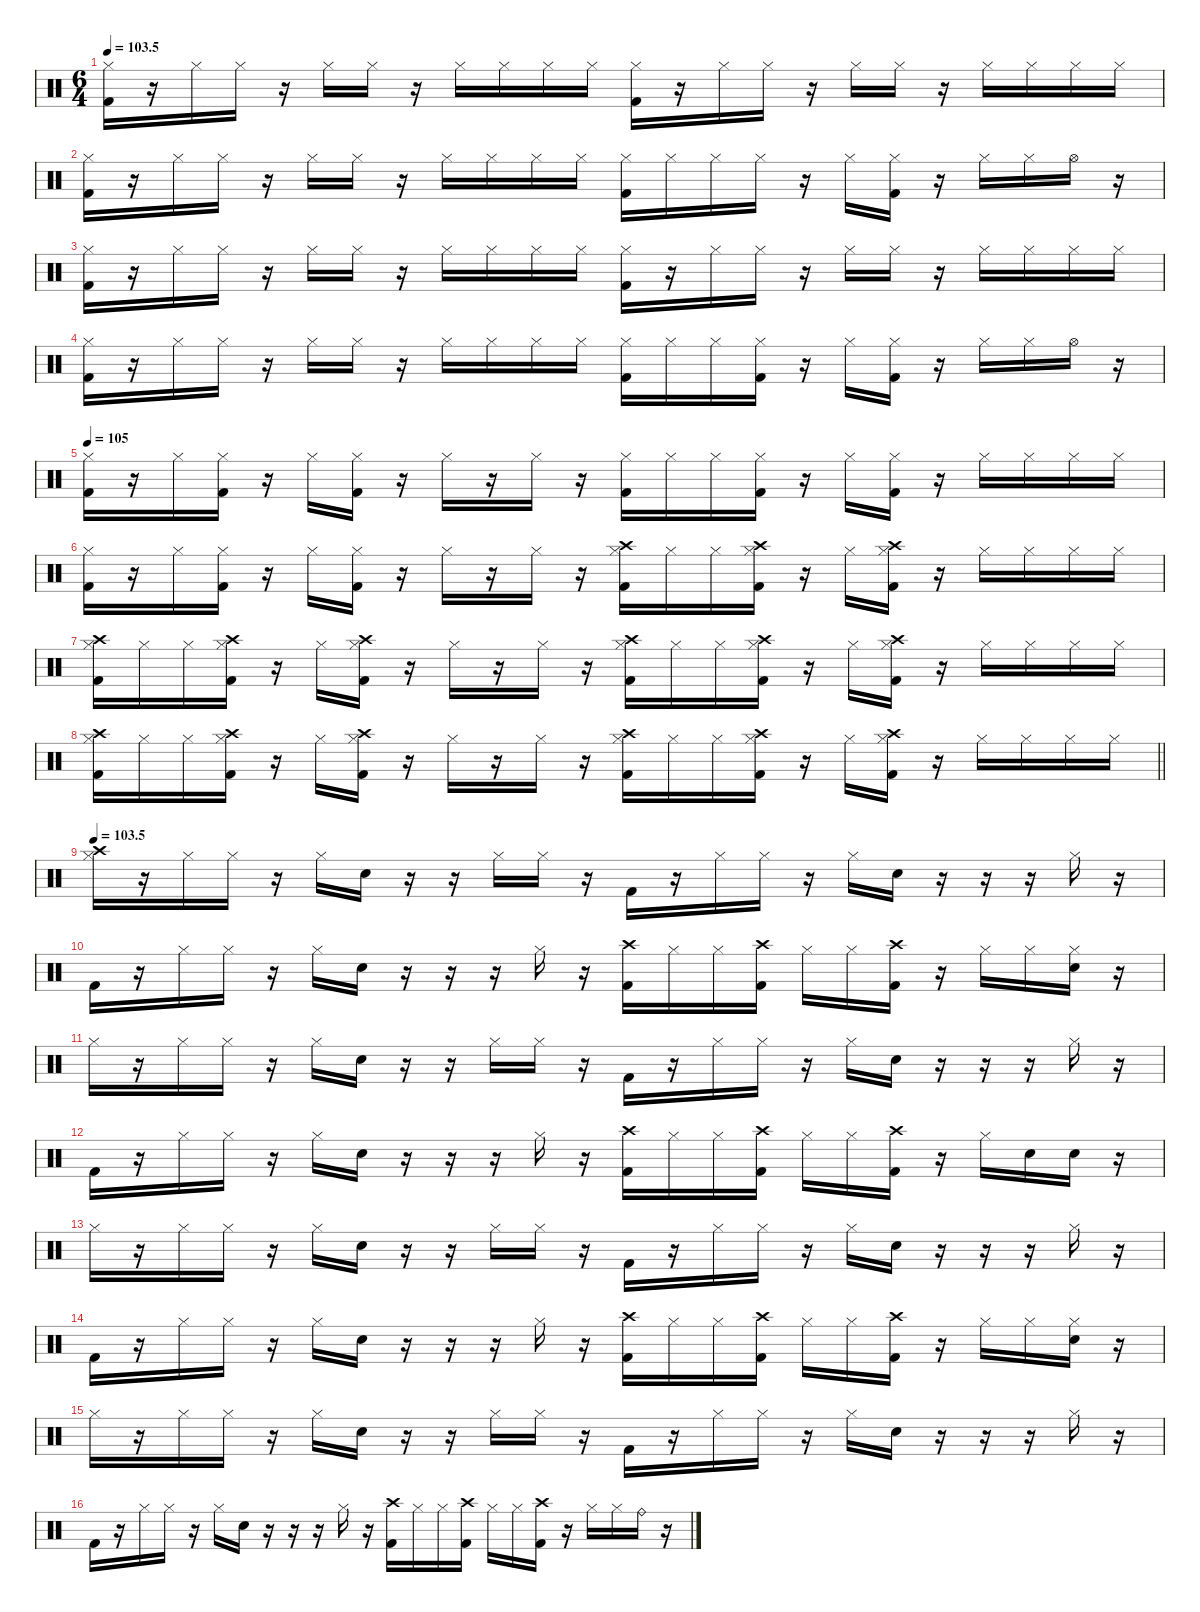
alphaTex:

\defaultSystemsLayout 4
\hideDynamics
\bracketExtendMode nobrackets
\singleTrackTrackNamePolicy hidden
\multiTrackTrackNamePolicy hidden
\firstSystemTrackNameMode fullname
\firstSystemTrackNameOrientation horizontal
\otherSystemsTrackNameOrientation horizontal
\track ("Gene Hoglan" "drm.") {instrument percussion}
\staff {score}
\articulation defaults
\ts (6 4)
\tempo
103.5
\accidentals auto
\clef neutral
\ottava regular
\simile none
\ks c
("Hi-Hat (closed)" "Kick (hit) 2").16{dy f beam Down} r.16{beam Down} "Hi-Hat (closed)".16{beam Down} "Hi-Hat (closed)".16{beam Down} r.16{beam Down} "Hi-Hat (closed)".16{beam Down} "Hi-Hat (closed)".16{beam Down} r.16{beam Down} "Hi-Hat (closed)".16{beam Down} "Hi-Hat (closed)".16{beam Down} "Hi-Hat (closed)".16{beam Down} "Hi-Hat (closed)".16{beam Down} ("Hi-Hat (closed)" "Kick (hit) 2").16{beam Down} r.16{beam Down} "Hi-Hat (closed)".16{beam Down} "Hi-Hat (closed)".16{beam Down} r.16{beam Down} "Hi-Hat (closed)".16{beam Down} "Hi-Hat (closed)".16{beam Down} r.16{beam Down} "Hi-Hat (closed)".16{beam Down} "Hi-Hat (closed)".16{beam Down} "Hi-Hat (closed)".16{beam Down} "Hi-Hat (closed)".16{beam Down} |
("Hi-Hat (closed)" "Kick (hit) 2").16{beam Down} r.16{beam Down} "Hi-Hat (closed)".16{beam Down} "Hi-Hat (closed)".16{beam Down} r.16{beam Down} "Hi-Hat (closed)".16{beam Down} "Hi-Hat (closed)".16{beam Down} r.16{beam Down} "Hi-Hat (closed)".16{beam Down} "Hi-Hat (closed)".16{beam Down} "Hi-Hat (closed)".16{beam Down} "Hi-Hat (closed)".16{beam Down} ("Hi-Hat (closed)" "Kick (hit) 2").16{beam Down} "Hi-Hat (closed)".16{beam Down} "Hi-Hat (closed)".16{beam Down} "Hi-Hat (closed)".16{beam Down} r.16{beam Down} "Hi-Hat (closed)".16{beam Down} ("Hi-Hat (closed)" "Kick (hit) 2").16{beam Down} r.16{beam Down} "Hi-Hat (closed)".16{beam Down} "Hi-Hat (closed)".16{beam Down} "Hi-Hat (open)".16{beam Down} r.16{beam Down} |
("Hi-Hat (closed)" "Kick (hit) 2").16{beam Down} r.16{beam Down} "Hi-Hat (closed)".16{beam Down} "Hi-Hat (closed)".16{beam Down} r.16{beam Down} "Hi-Hat (closed)".16{beam Down} "Hi-Hat (closed)".16{beam Down} r.16{beam Down} "Hi-Hat (closed)".16{beam Down} "Hi-Hat (closed)".16{beam Down} "Hi-Hat (closed)".16{beam Down} "Hi-Hat (closed)".16{beam Down} ("Hi-Hat (closed)" "Kick (hit) 2").16{beam Down} r.16{beam Down} "Hi-Hat (closed)".16{beam Down} "Hi-Hat (closed)".16{beam Down} r.16{beam Down} "Hi-Hat (closed)".16{beam Down} "Hi-Hat (closed)".16{beam Down} r.16{beam Down} "Hi-Hat (closed)".16{beam Down} "Hi-Hat (closed)".16{beam Down} "Hi-Hat (closed)".16{beam Down} "Hi-Hat (closed)".16{beam Down} |
("Hi-Hat (closed)" "Kick (hit) 2").16{beam Down} r.16{beam Down} "Hi-Hat (closed)".16{beam Down} "Hi-Hat (closed)".16{beam Down} r.16{beam Down} "Hi-Hat (closed)".16{beam Down} "Hi-Hat (closed)".16{beam Down} r.16{beam Down} "Hi-Hat (closed)".16{beam Down} "Hi-Hat (closed)".16{beam Down} "Hi-Hat (closed)".16{beam Down} "Hi-Hat (closed)".16{beam Down} ("Hi-Hat (closed)" "Kick (hit) 2").16{beam Down} "Hi-Hat (closed)".16{beam Down} "Hi-Hat (closed)".16{beam Down} ("Hi-Hat (closed)" "Kick (hit) 2").16{beam Down} r.16{beam Down} "Hi-Hat (closed)".16{beam Down} ("Hi-Hat (closed)" "Kick (hit) 2").16{beam Down} r.16{beam Down} "Hi-Hat (closed)".16{beam Down} "Hi-Hat (closed)".16{beam Down} "Hi-Hat (open)".16{beam Down} r.16{beam Down} |
\tempo 105
("Hi-Hat (closed)" "Kick (hit) 2").16{beam Down} r.16{beam Down} "Hi-Hat (closed)".16{beam Down} ("Hi-Hat (closed)" "Kick (hit) 2").16{beam Down} r.16{beam Down} "Hi-Hat (closed)".16{beam Down} ("Hi-Hat (closed)" "Kick (hit) 2").16{beam Down} r.16{beam Down} "Hi-Hat (closed)".16{beam Down} r.16{beam Down} "Hi-Hat (closed)".16{beam Down} r.16{beam Down} ("Hi-Hat (closed)" "Kick (hit) 2").16{beam Down} "Hi-Hat (closed)".16{beam Down} "Hi-Hat (closed)".16{beam Down} ("Hi-Hat (closed)" "Kick (hit) 2").16{beam Down} r.16{beam Down} "Hi-Hat (closed)".16{beam Down} ("Hi-Hat (closed)" "Kick (hit) 2").16{beam Down} r.16{beam Down} "Hi-Hat (closed)".16{beam Down} "Hi-Hat (closed)".16{beam Down} "Hi-Hat (closed)".16{beam Down} "Hi-Hat (closed)".16{beam Down} |
("Hi-Hat (closed)" "Kick (hit) 2").16{beam Down} r.16{beam Down} "Hi-Hat (closed)".16{beam Down} ("Hi-Hat (closed)" "Kick (hit) 2").16{beam Down} r.16{beam Down} "Hi-Hat (closed)".16{beam Down} ("Hi-Hat (closed)" "Kick (hit) 2").16{beam Down} r.16{beam Down} "Hi-Hat (closed)".16{beam Down} r.16{beam Down} "Hi-Hat (closed)".16{beam Down} r.16{beam Down} ("Hi-Hat (closed)" "Crash high (hit)" "Kick (hit) 2").16{beam Down} "Hi-Hat (closed)".16{beam Down} "Hi-Hat (closed)".16{beam Down} ("Hi-Hat (closed)" "Crash high (hit)" "Kick (hit) 2").16{beam Down} r.16{beam Down} "Hi-Hat (closed)".16{beam Down} ("Hi-Hat (closed)" "Crash high (hit)" "Kick (hit) 2").16{beam Down} r.16{beam Down} "Hi-Hat (closed)".16{beam Down} "Hi-Hat (closed)".16{beam Down} "Hi-Hat (closed)".16{beam Down} "Hi-Hat (closed)".16{beam Down} |
("Hi-Hat (closed)" "Crash high (hit)" "Kick (hit) 2").16{beam Down} "Hi-Hat (closed)".16{beam Down} "Hi-Hat (closed)".16{beam Down} ("Hi-Hat (closed)" "Crash high (hit)" "Kick (hit) 2").16{beam Down} r.16{beam Down} "Hi-Hat (closed)".16{beam Down} ("Hi-Hat (closed)" "Crash high (hit)" "Kick (hit) 2").16{beam Down} r.16{beam Down} "Hi-Hat (closed)".16{beam Down} r.16{beam Down} "Hi-Hat (closed)".16{beam Down} r.16{beam Down} ("Hi-Hat (closed)" "Crash high (hit)" "Kick (hit) 2").16{beam Down} "Hi-Hat (closed)".16{beam Down} "Hi-Hat (closed)".16{beam Down} ("Hi-Hat (closed)" "Crash high (hit)" "Kick (hit) 2").16{beam Down} r.16{beam Down} "Hi-Hat (closed)".16{beam Down} ("Hi-Hat (closed)" "Crash high (hit)" "Kick (hit) 2").16{beam Down} r.16{beam Down} "Hi-Hat (closed)".16{beam Down} "Hi-Hat (closed)".16{beam Down} "Hi-Hat (closed)".16{beam Down} "Hi-Hat (closed)".16{beam Down} |
\barLineRight lightlight
("Hi-Hat (closed)" "Crash high (hit)" "Kick (hit) 2").16{beam Down} "Hi-Hat (closed)".16{beam Down} "Hi-Hat (closed)".16{beam Down} ("Hi-Hat (closed)" "Crash high (hit)" "Kick (hit) 2").16{beam Down} r.16{beam Down} "Hi-Hat (closed)".16{beam Down} ("Hi-Hat (closed)" "Crash high (hit)" "Kick (hit) 2").16{beam Down} r.16{beam Down} "Hi-Hat (closed)".16{beam Down} r.16{beam Down} "Hi-Hat (closed)".16{beam Down} r.16{beam Down} ("Hi-Hat (closed)" "Crash high (hit)" "Kick (hit) 2").16{beam Down} "Hi-Hat (closed)".16{beam Down} "Hi-Hat (closed)".16{beam Down} ("Hi-Hat (closed)" "Crash high (hit)" "Kick (hit) 2").16{beam Down} r.16{beam Down} "Hi-Hat (closed)".16{beam Down} ("Hi-Hat (closed)" "Crash high (hit)" "Kick (hit) 2").16{beam Down} r.16{beam Down} "Hi-Hat (closed)".16{beam Down} "Hi-Hat (closed)".16{beam Down} "Hi-Hat (closed)".16{beam Down} "Hi-Hat (closed)".16{beam Down} |
\tempo
103.5 ("Hi-Hat (closed)" "Crash high (hit)").16{beam Down} r.16{beam Down} "Hi-Hat (closed)".16{beam Down} "Hi-Hat (closed)".16{beam Down} r.16{beam Down} "Hi-Hat (closed)".16{beam Down} "Snare (hit) 2".16{beam Down} r.16{beam Down} r.16{beam Down} "Hi-Hat (closed)".16{beam Down} "Hi-Hat (closed)".16{beam Down} r.16{beam Down} "Kick (hit) 2".16{beam Down} r.16{beam Down} "Hi-Hat (closed)".16{beam Down} "Hi-Hat (closed)".16{beam Down} r.16{beam Down} "Hi-Hat (closed)".16{beam Down} "Snare (hit) 2".16{beam Down} r.16{beam Down} r.16{beam Down} r.16{beam Down} "Hi-Hat (closed)".16{beam Down} r.16{beam Down} |
"Kick (hit) 2".16{beam Down} r.16{beam Down} "Hi-Hat (closed)".16{beam Down} "Hi-Hat (closed)".16{beam Down} r.16{beam Down} "Hi-Hat (closed)".16{beam Down} "Snare (hit) 2".16{beam Down} r.16{beam Down} r.16{beam Down} r.16{beam Down} "Hi-Hat (closed)".16{beam Down} r.16{beam Down} ("Crash high (hit)" "Kick (hit) 2").16{beam Down} "Hi-Hat (closed)".16{beam Down} "Hi-Hat (closed)".16{beam Down} ("Crash high (hit)" "Kick (hit) 2").16{beam Down} "Hi-Hat (closed)".16{beam Down} "Hi-Hat (closed)".16{beam Down} ("Crash high (hit)" "Kick (hit) 2").16{beam Down} r.16{beam Down} "Hi-Hat (closed)".16{beam Down} "Hi-Hat (closed)".16{beam Down} ("Hi-Hat (closed)" "Snare (hit) 2").16{beam Down} r.16{beam Down} |
"Hi-Hat (closed)".16{beam Down} r.16{beam Down} "Hi-Hat (closed)".16{beam Down} "Hi-Hat (closed)".16{beam Down} r.16{beam Down} "Hi-Hat (closed)".16{beam Down} "Snare (hit) 2".16{beam Down} r.16{beam Down} r.16{beam Down} "Hi-Hat (closed)".16{beam Down} "Hi-Hat (closed)".16{beam Down} r.16{beam Down} "Kick (hit) 2".16{beam Down} r.16{beam Down} "Hi-Hat (closed)".16{beam Down} "Hi-Hat (closed)".16{beam Down} r.16{beam Down} "Hi-Hat (closed)".16{beam Down} "Snare (hit) 2".16{beam Down} r.16{beam Down} r.16{beam Down} r.16{beam Down} "Hi-Hat (closed)".16{beam Down} r.16{beam Down} |
"Kick (hit) 2".16{beam Down} r.16{beam Down} "Hi-Hat (closed)".16{beam Down} "Hi-Hat (closed)".16{beam Down} r.16{beam Down} "Hi-Hat (closed)".16{beam Down} "Snare (hit) 2".16{beam Down} r.16{beam Down} r.16{beam Down} r.16{beam Down} "Hi-Hat (closed)".16{beam Down} r.16{beam Down} ("Crash high (hit)" "Kick (hit) 2").16{beam Down} "Hi-Hat (closed)".16{beam Down} "Hi-Hat (closed)".16{beam Down} ("Crash high (hit)" "Kick (hit) 2").16{beam Down} "Hi-Hat (closed)".16{beam Down} "Hi-Hat (closed)".16{beam Down} ("Crash high (hit)" "Kick (hit) 2").16{beam Down} r.16{beam Down} "Hi-Hat (closed)".16{beam Down} "Snare (hit) 2".16{beam Down} "Snare (hit) 2".16{beam Down} r.16{beam Down} |
"Hi-Hat (closed)".16{beam Down} r.16{beam Down} "Hi-Hat (closed)".16{beam Down} "Hi-Hat (closed)".16{beam Down} r.16{beam Down} "Hi-Hat (closed)".16{beam Down} "Snare (hit) 2".16{beam Down} r.16{beam Down} r.16{beam Down} "Hi-Hat (closed)".16{beam Down} "Hi-Hat (closed)".16{beam Down} r.16{beam Down} "Kick (hit) 2".16{beam Down} r.16{beam Down} "Hi-Hat (closed)".16{beam Down} "Hi-Hat (closed)".16{beam Down} r.16{beam Down} "Hi-Hat (closed)".16{beam Down} "Snare (hit) 2".16{beam Down} r.16{beam Down} r.16{beam Down} r.16{beam Down} "Hi-Hat (closed)".16{beam Down} r.16{beam Down} |
"Kick (hit) 2".16{beam Down} r.16{beam Down} "Hi-Hat (closed)".16{beam Down} "Hi-Hat (closed)".16{beam Down} r.16{beam Down} "Hi-Hat (closed)".16{beam Down} "Snare (hit) 2".16{beam Down} r.16{beam Down} r.16{beam Down} r.16{beam Down} "Hi-Hat (closed)".16{beam Down} r.16{beam Down} ("Crash high (hit)" "Kick (hit) 2").16{beam Down} "Hi-Hat (closed)".16{beam Down} "Hi-Hat (closed)".16{beam Down} ("Crash high (hit)" "Kick (hit) 2").16{beam Down} "Hi-Hat (closed)".16{beam Down} "Hi-Hat (closed)".16{beam Down} ("Crash high (hit)" "Kick (hit) 2").16{beam Down} r.16{beam Down} "Hi-Hat (closed)".16{beam Down} "Hi-Hat (closed)".16{beam Down} ("Hi-Hat (closed)" "Snare (hit) 2").16{beam Down} r.16{beam Down} |
"Hi-Hat (closed)".16{beam Down} r.16{beam Down} "Hi-Hat (closed)".16{beam Down} "Hi-Hat (closed)".16{beam Down} r.16{beam Down} "Hi-Hat (closed)".16{beam Down} "Snare (hit) 2".16{beam Down} r.16{beam Down} r.16{beam Down} "Hi-Hat (closed)".16{beam Down} "Hi-Hat (closed)".16{beam Down} r.16{beam Down} "Kick (hit) 2".16{beam Down} r.16{beam Down} "Hi-Hat (closed)".16{beam Down} "Hi-Hat (closed)".16{beam Down} r.16{beam Down} "Hi-Hat (closed)".16{beam Down} "Snare (hit) 2".16{beam Down} r.16{beam Down} r.16{beam Down} r.16{beam Down} "Hi-Hat (closed)".16{beam Down} r.16{beam Down} |
"Kick (hit) 2".16{beam Down} r.16{beam Down} "Hi-Hat (closed)".16{beam Down} "Hi-Hat (closed)".16{beam Down} r.16{beam Down} "Hi-Hat (closed)".16{beam Down} "Snare (hit) 2".16{beam Down} r.16{beam Down} r.16{beam Down} r.16{beam Down} "Hi-Hat (closed)".16{beam Down} r.16{beam Down} ("Crash high (hit)" "Kick (hit) 2").16{beam Down} "Hi-Hat (closed)".16{beam Down} "Hi-Hat (closed)".16{beam Down} ("Crash high (hit)" "Kick (hit) 2").16{beam Down} "Hi-Hat (closed)".16{beam Down} "Hi-Hat (closed)".16{beam Down} ("Crash high (hit)" "Kick (hit) 2").16{beam Down} r.16{beam Down} "Hi-Hat (closed)".16{beam Down} "Hi-Hat (closed)".16{beam Down} "Ride (bell)".16{beam Down} r.16{beam Down}
